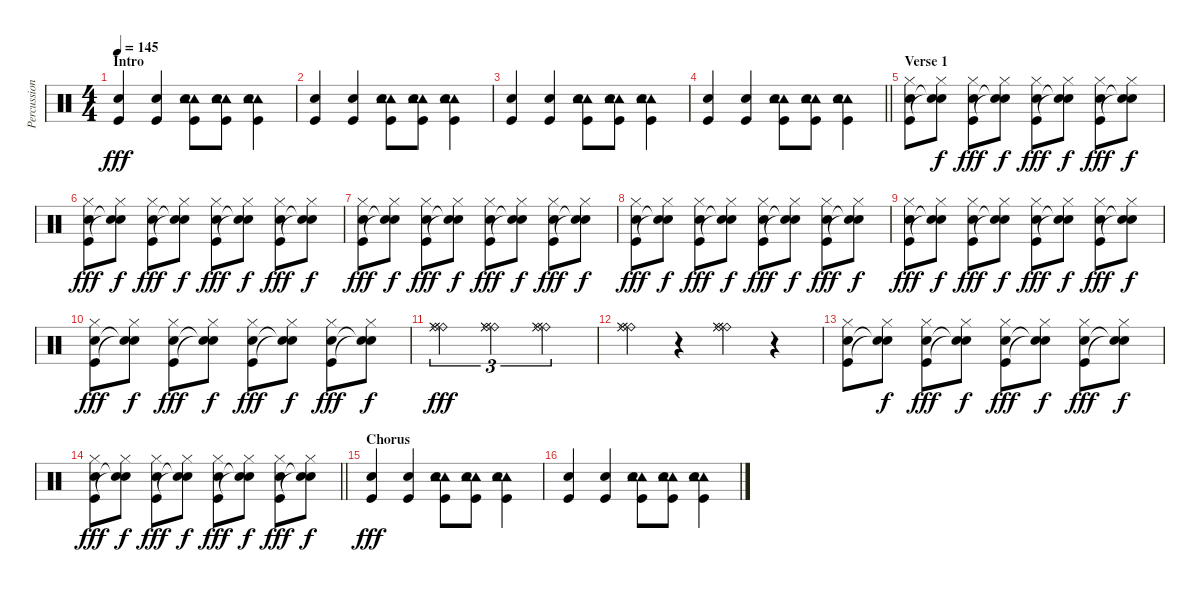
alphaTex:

\track ("Percussion" "Percussion") {instrument percussion}
\staff {score}
\articulation defaults
\ts (4 4)
\section ("" "Intro")
\tempo 145
\clef neutral
\ks c
("Snare (hit) 2" "Kick (hit)").4{dy fff} ("Snare (hit) 2" "Kick (hit)").4 ("Tambourine (hit)" "Tambourine (hit)" "Snare (hit) 2" "Kick (hit)").8 ("Tambourine (hit)" "Tambourine (hit)" "Snare (hit) 2" "Kick (hit)").8 ("Tambourine (hit)" "Tambourine (hit)" "Snare (hit) 2" "Kick (hit)").4 |
("Snare (hit) 2" "Kick (hit)").4 ("Snare (hit) 2" "Kick (hit)").4 ("Tambourine (hit)" "Tambourine (hit)" "Snare (hit) 2" "Kick (hit)").8 ("Tambourine (hit)" "Tambourine (hit)" "Snare (hit) 2" "Kick (hit)").8 ("Tambourine (hit)" "Tambourine (hit)" "Snare (hit) 2" "Kick (hit)").4 |
("Snare (hit) 2" "Kick (hit)").4 ("Snare (hit) 2" "Kick (hit)").4 ("Tambourine (hit)" "Tambourine (hit)" "Snare (hit) 2" "Kick (hit)").8 ("Tambourine (hit)" "Tambourine (hit)" "Snare (hit) 2" "Kick (hit)").8 ("Tambourine (hit)" "Tambourine (hit)" "Snare (hit) 2" "Kick (hit)").4 |
\barLineRight lightlight
("Snare (hit) 2" "Kick (hit)").4 ("Snare (hit) 2" "Kick (hit)").4 ("Tambourine (hit)" "Tambourine (hit)" "Snare (hit) 2" "Kick (hit)").8 ("Tambourine (hit)" "Tambourine (hit)" "Snare (hit) 2" "Kick (hit)").8 ("Tambourine (hit)" "Tambourine (hit)" "Snare (hit) 2" "Kick (hit)").4 |
\section ("" "Verse 1")
("Hi-Hat (closed)" "Snare (hit) 2" "Kick (hit)").8 ("Hi-Hat (closed)" "Snare (hit)"{t} "Snare (hit)"{t}).8{dy f} ("Hi-Hat (closed)" "Snare (hit) 2" "Kick (hit)").8{dy fff} ("Hi-Hat (closed)" "Snare (hit)"{t} "Snare (hit)"{t}).8{dy f} ("Hi-Hat (closed)" "Snare (hit) 2" "Kick (hit)").8{dy fff} ("Hi-Hat (closed)" "Snare (hit)"{t} "Snare (hit)"{t}).8{dy f} ("Hi-Hat (closed)" "Snare (hit) 2" "Kick (hit)").8{dy fff} ("Hi-Hat (closed)" "Snare (hit)"{t} "Snare (hit)"{t}).8{dy f} |
("Hi-Hat (closed)" "Snare (hit) 2" "Kick (hit)").8{dy fff} ("Hi-Hat (closed)" "Snare (hit)"{t} "Snare (hit)"{t}).8{dy f} ("Hi-Hat (closed)" "Snare (hit) 2" "Kick (hit)").8{dy fff} ("Hi-Hat (closed)" "Snare (hit)"{t} "Snare (hit)"{t}).8{dy f} ("Hi-Hat (closed)" "Snare (hit) 2" "Kick (hit)").8{dy fff} ("Hi-Hat (closed)" "Snare (hit)"{t} "Snare (hit)"{t}).8{dy f} ("Hi-Hat (closed)" "Snare (hit) 2" "Kick (hit)").8{dy fff} ("Hi-Hat (closed)" "Snare (hit)"{t} "Snare (hit)"{t}).8{dy f} |
("Hi-Hat (closed)" "Snare (hit) 2" "Kick (hit)").8{dy fff} ("Hi-Hat (closed)" "Snare (hit)"{t} "Snare (hit)"{t}).8{dy f} ("Hi-Hat (closed)" "Snare (hit) 2" "Kick (hit)").8{dy fff} ("Hi-Hat (closed)" "Snare (hit)"{t} "Snare (hit)"{t}).8{dy f} ("Hi-Hat (closed)" "Snare (hit) 2" "Kick (hit)").8{dy fff} ("Hi-Hat (closed)" "Snare (hit)"{t} "Snare (hit)"{t}).8{dy f} ("Hi-Hat (closed)" "Snare (hit) 2" "Kick (hit)").8{dy fff} ("Hi-Hat (closed)" "Snare (hit)"{t} "Snare (hit)"{t}).8{dy f} |
("Hi-Hat (closed)" "Snare (hit) 2" "Kick (hit)").8{dy fff} ("Hi-Hat (closed)" "Snare (hit)"{t} "Snare (hit)"{t}).8{dy f} ("Hi-Hat (closed)" "Snare (hit) 2" "Kick (hit)").8{dy fff} ("Hi-Hat (closed)" "Snare (hit)"{t} "Snare (hit)"{t}).8{dy f} ("Hi-Hat (closed)" "Snare (hit) 2" "Kick (hit)").8{dy fff} ("Hi-Hat (closed)" "Snare (hit)"{t} "Snare (hit)"{t}).8{dy f} ("Hi-Hat (closed)" "Snare (hit) 2" "Kick (hit)").8{dy fff} ("Hi-Hat (closed)" "Snare (hit)"{t} "Snare (hit)"{t}).8{dy f} |
("Hi-Hat (closed)" "Snare (hit) 2" "Kick (hit)").8{dy fff} ("Hi-Hat (closed)" "Snare (hit)"{t} "Snare (hit)"{t}).8{dy f} ("Hi-Hat (closed)" "Snare (hit) 2" "Kick (hit)").8{dy fff} ("Hi-Hat (closed)" "Snare (hit)"{t} "Snare (hit)"{t}).8{dy f} ("Hi-Hat (closed)" "Snare (hit) 2" "Kick (hit)").8{dy fff} ("Hi-Hat (closed)" "Snare (hit)"{t} "Snare (hit)"{t}).8{dy f} ("Hi-Hat (closed)" "Snare (hit) 2" "Kick (hit)").8{dy fff} ("Hi-Hat (closed)" "Snare (hit)"{t} "Snare (hit)"{t}).8{dy f} |
("Hi-Hat (closed)" "Snare (hit) 2" "Kick (hit)").8{dy fff} ("Hi-Hat (closed)" "Snare (hit)"{t} "Snare (hit)"{t}).8{dy f} ("Hi-Hat (closed)" "Snare (hit) 2" "Kick (hit)").8{dy fff} ("Hi-Hat (closed)" "Snare (hit)"{t} "Snare (hit)"{t}).8{dy f} ("Hi-Hat (closed)" "Snare (hit) 2" "Kick (hit)").8{dy fff} ("Hi-Hat (closed)" "Snare (hit)"{t} "Snare (hit)"{t}).8{dy f} ("Hi-Hat (closed)" "Snare (hit) 2" "Kick (hit)").8{dy fff} ("Hi-Hat (closed)" "Snare (hit)"{t} "Snare (hit)"{t}).8{dy f} |
("Ride (bell)" "Ride (bell)" "Ride (middle)" "Ride (middle)").2{tu (3 2) dy fff volume 16} ("Ride (bell)" "Ride (bell)" "Ride (middle)" "Ride (middle)").2{tu (3 2)} ("Ride (bell)" "Ride (bell)" "Ride (middle)" "Ride (middle)").2{tu (3 2)} |
("Ride (bell)" "Ride (bell)" "Ride (middle)" "Ride (middle)").4 r.4 ("Ride (bell)" "Ride (bell)" "Ride (middle)" "Ride (middle)").4 r.4 |
("Hi-Hat (closed)" "Snare (hit) 2" "Kick (hit)").8{volume 12} ("Hi-Hat (closed)" "Snare (hit)"{t} "Snare (hit)"{t}).8{dy f} ("Hi-Hat (closed)" "Snare (hit) 2" "Kick (hit)").8{dy fff} ("Hi-Hat (closed)" "Snare (hit)"{t} "Snare (hit)"{t}).8{dy f} ("Hi-Hat (closed)" "Snare (hit) 2" "Kick (hit)").8{dy fff} ("Hi-Hat (closed)" "Snare (hit)"{t} "Snare (hit)"{t}).8{dy f} ("Hi-Hat (closed)" "Snare (hit) 2" "Kick (hit)").8{dy fff} ("Hi-Hat (closed)" "Snare (hit)"{t} "Snare (hit)"{t}).8{dy f} |
\barLineRight lightlight
("Hi-Hat (closed)" "Snare (hit) 2" "Kick (hit)").8{dy fff} ("Hi-Hat (closed)" "Snare (hit)"{t} "Snare (hit)"{t}).8{dy f} ("Hi-Hat (closed)" "Snare (hit) 2" "Kick (hit)").8{dy fff} ("Hi-Hat (closed)" "Snare (hit)"{t} "Snare (hit)"{t}).8{dy f} ("Hi-Hat (closed)" "Snare (hit) 2" "Kick (hit)").8{dy fff} ("Hi-Hat (closed)" "Snare (hit)"{t} "Snare (hit)"{t}).8{dy f} ("Hi-Hat (closed)" "Snare (hit) 2" "Kick (hit)").8{dy fff} ("Hi-Hat (closed)" "Snare (hit)"{t} "Snare (hit)"{t}).8{dy f} |
\section ("" "Chorus")
("Snare (hit) 2" "Kick (hit)").4{dy fff} ("Snare (hit) 2" "Kick (hit)").4 ("Tambourine (hit)" "Tambourine (hit)" "Snare (hit) 2" "Kick (hit)").8 ("Tambourine (hit)" "Tambourine (hit)" "Snare (hit) 2" "Kick (hit)").8 ("Tambourine (hit)" "Tambourine (hit)" "Snare (hit) 2" "Kick (hit)").4 |
("Snare (hit) 2" "Kick (hit)").4 ("Snare (hit) 2" "Kick (hit)").4 ("Tambourine (hit)" "Tambourine (hit)" "Snare (hit) 2" "Kick (hit)").8 ("Tambourine (hit)" "Tambourine (hit)" "Snare (hit) 2" "Kick (hit)").8 ("Tambourine (hit)" "Tambourine (hit)" "Snare (hit) 2" "Kick (hit)").4
